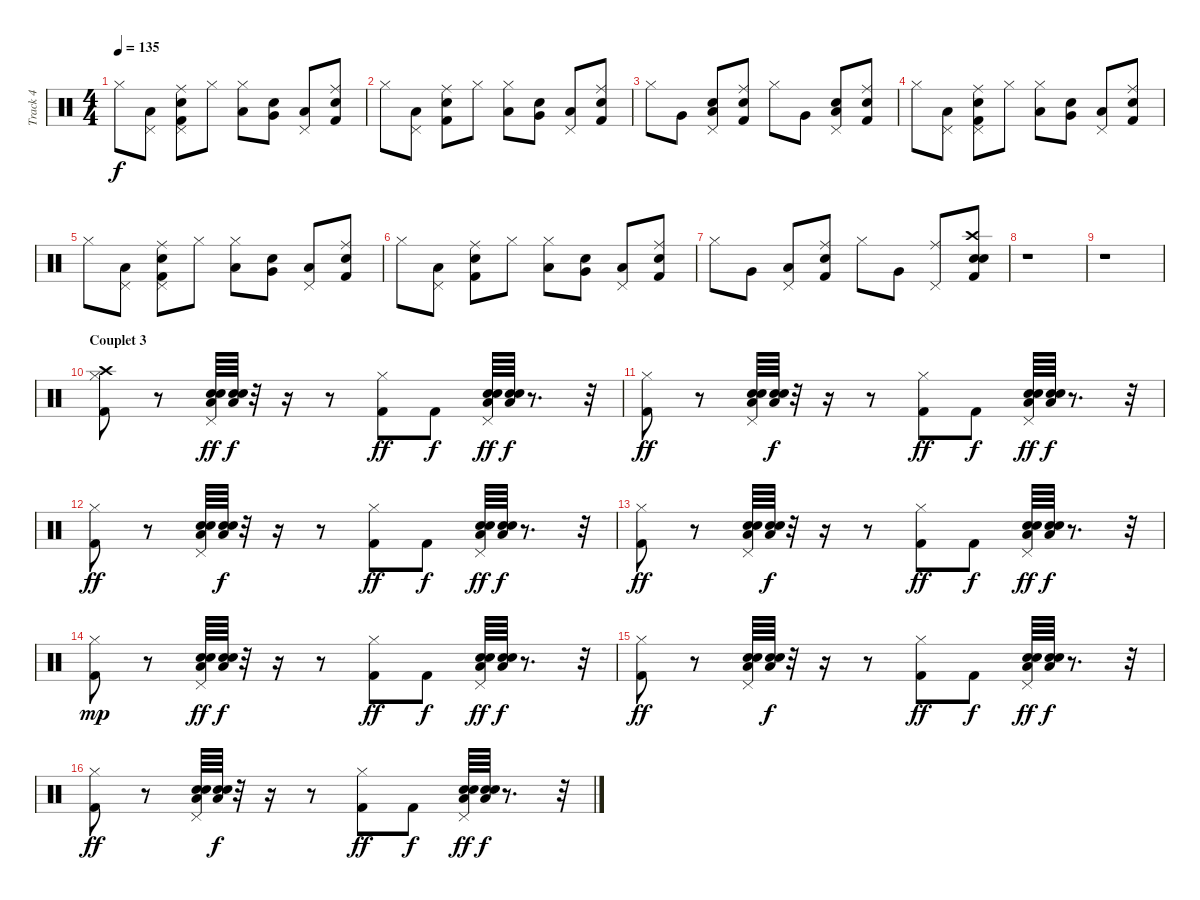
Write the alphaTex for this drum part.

\track ("Track 4" "Track 4") {instrument percussion}
\staff {score}
\articulation defaults
\ts (4 4)
\tempo 135
\clef neutral
\ks c "Hi-Hat (closed)".8{dy f}
("Low Floor Tom (hit)" "Pedal Hi-Hat (hit)").8 ("Kick (hit) 2" "Ride (middle)" "Pedal Hi-Hat (hit)" "Electric Snare (hit)").8 "Hi-Hat (closed)".8 ("Low Floor Tom (hit)" "Hi-Hat (closed)").8 ("Very Low Tom (hit)" "Electric Snare (hit)").8 ("Low Tom (hit)" "Pedal Hi-Hat (hit)").8 ("Ride (middle)" "Electric Snare (hit)" "Kick (hit) 2").8 |
"Hi-Hat (closed)".8 ("Low Floor Tom (hit)" "Pedal Hi-Hat (hit)").8 ("Kick (hit) 2" "Ride (middle)" "Electric Snare (hit)").8 "Hi-Hat (closed)".8 ("Low Floor Tom (hit)" "Hi-Hat (closed)").8 ("Very Low Tom (hit)" "Electric Snare (hit)").8 ("Low Tom (hit)" "Pedal Hi-Hat (hit)").8 ("Ride (middle)" "Electric Snare (hit)" "Kick (hit) 2").8 |
"Hi-Hat (closed)".8 "Very Low Tom (hit)".8 ("Low Tom (hit)" "Pedal Hi-Hat (hit)" "Electric Snare (hit)").8 ("Electric Snare (hit)" "Kick (hit) 2" "Ride (middle)").8 "Hi-Hat (closed)".8 "Very Low Tom (hit)".8 ("Low Tom (hit)" "Pedal Hi-Hat (hit)" "Electric Snare (hit)").8 ("Electric Snare (hit)" "Kick (hit) 2" "Ride (middle)").8 |
"Hi-Hat (closed)".8 ("Low Floor Tom (hit)" "Pedal Hi-Hat (hit)").8 ("Kick (hit) 2" "Ride (middle)" "Pedal Hi-Hat (hit)" "Electric Snare (hit)").8 "Hi-Hat (closed)".8 ("Low Floor Tom (hit)" "Hi-Hat (closed)").8 ("Very Low Tom (hit)" "Electric Snare (hit)").8 ("Low Tom (hit)" "Pedal Hi-Hat (hit)").8 ("Ride (middle)" "Electric Snare (hit)" "Kick (hit) 2").8 |
"Hi-Hat (closed)".8 ("Low Floor Tom (hit)" "Pedal Hi-Hat (hit)").8 ("Kick (hit) 2" "Ride (middle)" "Pedal Hi-Hat (hit)" "Electric Snare (hit)").8 "Hi-Hat (closed)".8 ("Low Floor Tom (hit)" "Hi-Hat (closed)").8 ("Very Low Tom (hit)" "Electric Snare (hit)").8 ("Low Tom (hit)" "Pedal Hi-Hat (hit)").8 ("Ride (middle)" "Electric Snare (hit)" "Kick (hit) 2").8 |
"Hi-Hat (closed)".8 ("Low Floor Tom (hit)" "Pedal Hi-Hat (hit)").8 ("Kick (hit) 2" "Ride (middle)" "Electric Snare (hit)").8 "Hi-Hat (closed)".8 ("Low Floor Tom (hit)" "Hi-Hat (closed)").8 ("Very Low Tom (hit)" "Electric Snare (hit)").8 ("Low Tom (hit)" "Pedal Hi-Hat (hit)").8 ("Ride (middle)" "Electric Snare (hit)" "Kick (hit) 2").8 |
"Hi-Hat (closed)".8 "Very Low Tom (hit)".8 ("Low Tom (hit)" "Pedal Hi-Hat (hit)").8 ("Electric Snare (hit)" "Kick (hit) 2" "Ride (middle)").8 "Hi-Hat (closed)".8 "Very Low Tom (hit)".8 ("Ride (middle)" "Pedal Hi-Hat (hit)").8 ("Electric Snare (hit)" "Kick (hit) 2" "Crash high (hit)" "Snare (hit) 2").8 |
r.1 |
r.1 |
\section ("" "Couplet 3")
("Kick (hit) 2" "Hi-Hat (closed)" "Crash high (hit)").8 r.8 ("Electric Snare (hit)" "Low Tom (hit)" "Snare (hit) 2" "Pedal Hi-Hat (hit)").64{dy ff} ("Electric Snare (hit)" "Low Tom (hit)" "Snare (hit) 2").64{dy f} r.32 r.16 r.8 ("Kick (hit) 2" "Hi-Hat (closed)").8{dy ff} "Kick (hit) 2".8{dy f} ("Electric Snare (hit)" "Low Tom (hit)" "Snare (hit) 2" "Pedal Hi-Hat (hit)").64{dy ff} ("Electric Snare (hit)" "Low Tom (hit)" "Snare (hit) 2").64{dy f} r.8{d} r.32 |
("Kick (hit) 2" "Hi-Hat (closed)").8{dy ff} r.8 ("Electric Snare (hit)" "Low Tom (hit)" "Snare (hit) 2" "Pedal Hi-Hat (hit)").64 ("Electric Snare (hit)" "Low Tom (hit)" "Snare (hit) 2").64{dy f} r.32 r.16 r.8 ("Kick (hit) 2" "Hi-Hat (closed)").8{dy ff} "Kick (hit) 2".8{dy f} ("Electric Snare (hit)" "Low Tom (hit)" "Snare (hit) 2" "Pedal Hi-Hat (hit)").64{dy ff} ("Electric Snare (hit)" "Low Tom (hit)" "Snare (hit) 2").64{dy f} r.8{d} r.32 |
("Kick (hit) 2" "Hi-Hat (closed)").8{dy ff} r.8 ("Electric Snare (hit)" "Low Tom (hit)" "Snare (hit) 2" "Pedal Hi-Hat (hit)").64 ("Electric Snare (hit)" "Low Tom (hit)" "Snare (hit) 2").64{dy f} r.32 r.16 r.8 ("Kick (hit) 2" "Hi-Hat (closed)").8{dy ff} "Kick (hit) 2".8{dy f} ("Electric Snare (hit)" "Low Tom (hit)" "Snare (hit) 2" "Pedal Hi-Hat (hit)").64{dy ff} ("Electric Snare (hit)" "Low Tom (hit)" "Snare (hit) 2").64{dy f} r.8{d} r.32 |
("Kick (hit) 2" "Hi-Hat (closed)").8{dy ff} r.8 ("Electric Snare (hit)" "Low Tom (hit)" "Snare (hit) 2" "Pedal Hi-Hat (hit)").64 ("Electric Snare (hit)" "Low Tom (hit)" "Snare (hit) 2").64{dy f} r.32 r.16 r.8 ("Kick (hit) 2" "Hi-Hat (closed)").8{dy ff} "Kick (hit) 2".8{dy f} ("Electric Snare (hit)" "Low Tom (hit)" "Snare (hit) 2" "Pedal Hi-Hat (hit)").64{dy ff} ("Electric Snare (hit)" "Low Tom (hit)" "Snare (hit) 2").64{dy f} r.8{d} r.32 |
("Kick (hit) 2" "Hi-Hat (closed)").8{dy mp} r.8 ("Electric Snare (hit)" "Low Tom (hit)" "Snare (hit) 2" "Pedal Hi-Hat (hit)").64{dy ff} ("Electric Snare (hit)" "Low Tom (hit)" "Snare (hit) 2").64{dy f} r.32 r.16 r.8 ("Kick (hit) 2" "Hi-Hat (closed)").8{dy ff} "Kick (hit) 2".8{dy f} ("Electric Snare (hit)" "Low Tom (hit)" "Snare (hit) 2" "Pedal Hi-Hat (hit)").64{dy ff} ("Electric Snare (hit)" "Low Tom (hit)" "Snare (hit) 2").64{dy f} r.8{d} r.32 |
("Kick (hit) 2" "Hi-Hat (closed)").8{dy ff} r.8 ("Electric Snare (hit)" "Low Tom (hit)" "Snare (hit) 2" "Pedal Hi-Hat (hit)").64 ("Electric Snare (hit)" "Low Tom (hit)" "Snare (hit) 2").64{dy f} r.32 r.16 r.8 ("Kick (hit) 2" "Hi-Hat (closed)").8{dy ff} "Kick (hit) 2".8{dy f} ("Electric Snare (hit)" "Low Tom (hit)" "Snare (hit) 2" "Pedal Hi-Hat (hit)").64{dy ff} ("Electric Snare (hit)" "Low Tom (hit)" "Snare (hit) 2").64{dy f} r.8{d} r.32 |
("Kick (hit) 2" "Hi-Hat (closed)").8{dy ff} r.8 ("Electric Snare (hit)" "Low Tom (hit)" "Snare (hit) 2" "Pedal Hi-Hat (hit)").64 ("Electric Snare (hit)" "Low Tom (hit)" "Snare (hit) 2").64{dy f} r.32 r.16 r.8 ("Kick (hit) 2" "Hi-Hat (closed)").8{dy ff} "Kick (hit) 2".8{dy f} ("Electric Snare (hit)" "Low Tom (hit)" "Snare (hit) 2" "Pedal Hi-Hat (hit)").64{dy ff} ("Electric Snare (hit)" "Low Tom (hit)" "Snare (hit) 2").64{dy f} r.8{d} r.32
